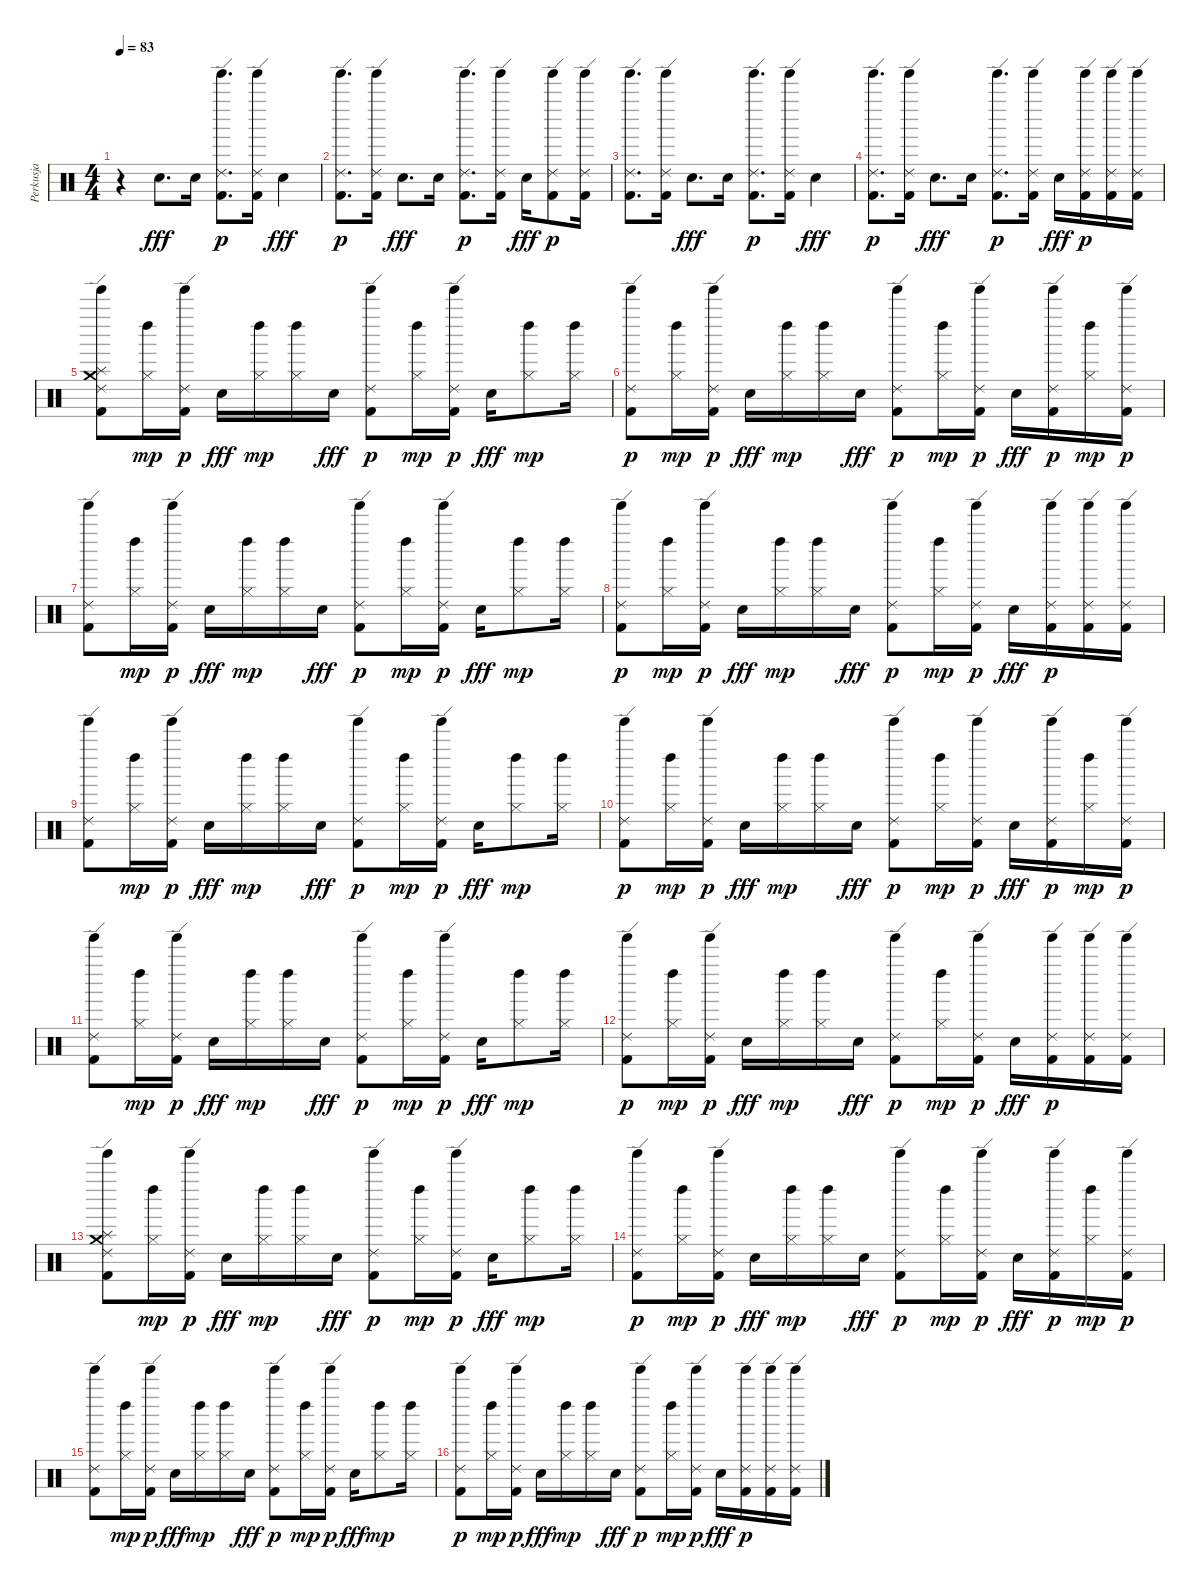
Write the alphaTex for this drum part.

\track ("Perkusja" "Perkusja") {instrument percussion}
\staff {score}
\articulation defaults
\ts (4 4)
\tempo 83
\clef neutral
\ks c
r.4{dy p} "Hand Clap (hit)".8{d dy fff} "Hand Clap (hit)".16 ("Tinkle Bell (hit)" "Ride (edge) 2" "Kick (hit) 2").8{d dy p} ("Tinkle Bell (hit)" "Ride (edge) 2" "Kick (hit) 2").16 "Hand Clap (hit)".4{dy fff} |
("Tinkle Bell (hit)" "Ride (edge) 2" "Kick (hit) 2").8{d dy p} ("Tinkle Bell (hit)" "Ride (edge) 2" "Kick (hit) 2").16 "Hand Clap (hit)".8{d dy fff} "Hand Clap (hit)".16 ("Tinkle Bell (hit)" "Ride (edge) 2" "Kick (hit) 2").8{d dy p} ("Tinkle Bell (hit)" "Ride (edge) 2" "Kick (hit) 2").16 "Hand Clap (hit)".16{dy fff} ("Tinkle Bell (hit)" "Ride (edge) 2" "Kick (hit) 2").8{dy p} ("Tinkle Bell (hit)" "Ride (edge) 2" "Kick (hit) 2").16 |
("Tinkle Bell (hit)" "Ride (edge) 2" "Kick (hit) 2").8{d} ("Tinkle Bell (hit)" "Ride (edge) 2" "Kick (hit) 2").16 "Hand Clap (hit)".8{d dy fff} "Hand Clap (hit)".16 ("Tinkle Bell (hit)" "Ride (edge) 2" "Kick (hit) 2").8{d dy p} ("Tinkle Bell (hit)" "Ride (edge) 2" "Kick (hit) 2").16 "Hand Clap (hit)".4{dy fff} |
("Tinkle Bell (hit)" "Ride (edge) 2" "Kick (hit) 2").8{d dy p} ("Tinkle Bell (hit)" "Ride (edge) 2" "Kick (hit) 2").16 "Hand Clap (hit)".8{d dy fff} "Hand Clap (hit)".16 ("Tinkle Bell (hit)" "Ride (edge) 2" "Kick (hit) 2").8{d dy p} ("Tinkle Bell (hit)" "Ride (edge) 2" "Kick (hit) 2").16 "Hand Clap (hit)".16{dy fff} ("Tinkle Bell (hit)" "Ride (edge) 2" "Kick (hit) 2").16{dy p} ("Tinkle Bell (hit)" "Ride (edge) 2" "Kick (hit) 2").16 ("Tinkle Bell (hit)" "Ride (edge) 2" "Kick (hit) 2").16 |
("Crash medium (hit)" "Splash (hit)" "Tinkle Bell (hit)" "Ride (edge) 2" "Kick (hit) 2").8 ("Hi-Hat (closed)" "Left Maraca (hit)").16{dy mp} ("Tinkle Bell (hit)" "Ride (edge) 2" "Kick (hit) 2").16{dy p} "Hand Clap (hit)".16{dy fff} ("Hi-Hat (closed)" "Left Maraca (hit)").16{dy mp} ("Hi-Hat (closed)" "Left Maraca (hit)").16 "Hand Clap (hit)".16{dy fff} ("Tinkle Bell (hit)" "Ride (edge) 2" "Kick (hit) 2").8{dy p} ("Hi-Hat (closed)" "Left Maraca (hit)").16{dy mp} ("Tinkle Bell (hit)" "Ride (edge) 2" "Kick (hit) 2").16{dy p} "Hand Clap (hit)".16{dy fff} ("Hi-Hat (closed)" "Left Maraca (hit)").8{dy mp} ("Hi-Hat (closed)" "Left Maraca (hit)").16 |
("Tinkle Bell (hit)" "Ride (edge) 2" "Kick (hit) 2").8{dy p} ("Hi-Hat (closed)" "Left Maraca (hit)").16{dy mp} ("Tinkle Bell (hit)" "Ride (edge) 2" "Kick (hit) 2").16{dy p} "Hand Clap (hit)".16{dy fff} ("Hi-Hat (closed)" "Left Maraca (hit)").16{dy mp} ("Hi-Hat (closed)" "Left Maraca (hit)").16 "Hand Clap (hit)".16{dy fff} ("Tinkle Bell (hit)" "Ride (edge) 2" "Kick (hit) 2").8{dy p} ("Hi-Hat (closed)" "Left Maraca (hit)").16{dy mp} ("Tinkle Bell (hit)" "Ride (edge) 2" "Kick (hit) 2").16{dy p} "Hand Clap (hit)".16{dy fff} ("Tinkle Bell (hit)" "Ride (edge) 2" "Kick (hit) 2").16{dy p} ("Hi-Hat (closed)" "Left Maraca (hit)").16{dy mp} ("Tinkle Bell (hit)" "Ride (edge) 2" "Kick (hit) 2").16{dy p} |
("Tinkle Bell (hit)" "Ride (edge) 2" "Kick (hit) 2").8 ("Hi-Hat (closed)" "Left Maraca (hit)").16{dy mp} ("Tinkle Bell (hit)" "Ride (edge) 2" "Kick (hit) 2").16{dy p} "Hand Clap (hit)".16{dy fff} ("Hi-Hat (closed)" "Left Maraca (hit)").16{dy mp} ("Hi-Hat (closed)" "Left Maraca (hit)").16 "Hand Clap (hit)".16{dy fff} ("Tinkle Bell (hit)" "Ride (edge) 2" "Kick (hit) 2").8{dy p} ("Hi-Hat (closed)" "Left Maraca (hit)").16{dy mp} ("Tinkle Bell (hit)" "Ride (edge) 2" "Kick (hit) 2").16{dy p} "Hand Clap (hit)".16{dy fff} ("Hi-Hat (closed)" "Left Maraca (hit)").8{dy mp} ("Hi-Hat (closed)" "Left Maraca (hit)").16 |
("Tinkle Bell (hit)" "Ride (edge) 2" "Kick (hit) 2").8{dy p} ("Hi-Hat (closed)" "Left Maraca (hit)").16{dy mp} ("Tinkle Bell (hit)" "Ride (edge) 2" "Kick (hit) 2").16{dy p} "Hand Clap (hit)".16{dy fff} ("Hi-Hat (closed)" "Left Maraca (hit)").16{dy mp} ("Hi-Hat (closed)" "Left Maraca (hit)").16 "Hand Clap (hit)".16{dy fff} ("Tinkle Bell (hit)" "Ride (edge) 2" "Kick (hit) 2").8{dy p} ("Hi-Hat (closed)" "Left Maraca (hit)").16{dy mp} ("Tinkle Bell (hit)" "Ride (edge) 2" "Kick (hit) 2").16{dy p} "Hand Clap (hit)".16{dy fff} ("Tinkle Bell (hit)" "Ride (edge) 2" "Kick (hit) 2").16{dy p} ("Tinkle Bell (hit)" "Ride (edge) 2" "Kick (hit) 2").16 ("Tinkle Bell (hit)" "Ride (edge) 2" "Kick (hit) 2").16 |
("Tinkle Bell (hit)" "Ride (edge) 2" "Kick (hit) 2").8 ("Hi-Hat (closed)" "Left Maraca (hit)").16{dy mp} ("Tinkle Bell (hit)" "Ride (edge) 2" "Kick (hit) 2").16{dy p} "Hand Clap (hit)".16{dy fff} ("Hi-Hat (closed)" "Left Maraca (hit)").16{dy mp} ("Hi-Hat (closed)" "Left Maraca (hit)").16 "Hand Clap (hit)".16{dy fff} ("Tinkle Bell (hit)" "Ride (edge) 2" "Kick (hit) 2").8{dy p} ("Hi-Hat (closed)" "Left Maraca (hit)").16{dy mp} ("Tinkle Bell (hit)" "Ride (edge) 2" "Kick (hit) 2").16{dy p} "Hand Clap (hit)".16{dy fff} ("Hi-Hat (closed)" "Left Maraca (hit)").8{dy mp} ("Hi-Hat (closed)" "Left Maraca (hit)").16 |
("Tinkle Bell (hit)" "Ride (edge) 2" "Kick (hit) 2").8{dy p} ("Hi-Hat (closed)" "Left Maraca (hit)").16{dy mp} ("Tinkle Bell (hit)" "Ride (edge) 2" "Kick (hit) 2").16{dy p} "Hand Clap (hit)".16{dy fff} ("Hi-Hat (closed)" "Left Maraca (hit)").16{dy mp} ("Hi-Hat (closed)" "Left Maraca (hit)").16 "Hand Clap (hit)".16{dy fff} ("Tinkle Bell (hit)" "Ride (edge) 2" "Kick (hit) 2").8{dy p} ("Hi-Hat (closed)" "Left Maraca (hit)").16{dy mp} ("Tinkle Bell (hit)" "Ride (edge) 2" "Kick (hit) 2").16{dy p} "Hand Clap (hit)".16{dy fff} ("Tinkle Bell (hit)" "Ride (edge) 2" "Kick (hit) 2").16{dy p} ("Hi-Hat (closed)" "Left Maraca (hit)").16{dy mp} ("Tinkle Bell (hit)" "Ride (edge) 2" "Kick (hit) 2").16{dy p} |
("Tinkle Bell (hit)" "Ride (edge) 2" "Kick (hit) 2").8 ("Hi-Hat (closed)" "Left Maraca (hit)").16{dy mp} ("Tinkle Bell (hit)" "Ride (edge) 2" "Kick (hit) 2").16{dy p} "Hand Clap (hit)".16{dy fff} ("Hi-Hat (closed)" "Left Maraca (hit)").16{dy mp} ("Hi-Hat (closed)" "Left Maraca (hit)").16 "Hand Clap (hit)".16{dy fff} ("Tinkle Bell (hit)" "Ride (edge) 2" "Kick (hit) 2").8{dy p} ("Hi-Hat (closed)" "Left Maraca (hit)").16{dy mp} ("Tinkle Bell (hit)" "Ride (edge) 2" "Kick (hit) 2").16{dy p} "Hand Clap (hit)".16{dy fff} ("Hi-Hat (closed)" "Left Maraca (hit)").8{dy mp} ("Hi-Hat (closed)" "Left Maraca (hit)").16 |
("Tinkle Bell (hit)" "Ride (edge) 2" "Kick (hit) 2").8{dy p} ("Hi-Hat (closed)" "Left Maraca (hit)").16{dy mp} ("Tinkle Bell (hit)" "Ride (edge) 2" "Kick (hit) 2").16{dy p} "Hand Clap (hit)".16{dy fff} ("Hi-Hat (closed)" "Left Maraca (hit)").16{dy mp} ("Hi-Hat (closed)" "Left Maraca (hit)").16 "Hand Clap (hit)".16{dy fff} ("Tinkle Bell (hit)" "Ride (edge) 2" "Kick (hit) 2").8{dy p} ("Hi-Hat (closed)" "Left Maraca (hit)").16{dy mp} ("Tinkle Bell (hit)" "Ride (edge) 2" "Kick (hit) 2").16{dy p} "Hand Clap (hit)".16{dy fff} ("Tinkle Bell (hit)" "Ride (edge) 2" "Kick (hit) 2").16{dy p} ("Tinkle Bell (hit)" "Ride (edge) 2" "Kick (hit) 2").16 ("Tinkle Bell (hit)" "Ride (edge) 2" "Kick (hit) 2").16 |
("Crash medium (hit)" "Splash (hit)" "Tinkle Bell (hit)" "Ride (edge) 2" "Kick (hit) 2").8 ("Hi-Hat (closed)" "Left Maraca (hit)").16{dy mp} ("Tinkle Bell (hit)" "Ride (edge) 2" "Kick (hit) 2").16{dy p} "Hand Clap (hit)".16{dy fff} ("Hi-Hat (closed)" "Left Maraca (hit)").16{dy mp} ("Hi-Hat (closed)" "Left Maraca (hit)").16 "Hand Clap (hit)".16{dy fff} ("Tinkle Bell (hit)" "Ride (edge) 2" "Kick (hit) 2").8{dy p} ("Hi-Hat (closed)" "Left Maraca (hit)").16{dy mp} ("Tinkle Bell (hit)" "Ride (edge) 2" "Kick (hit) 2").16{dy p} "Hand Clap (hit)".16{dy fff} ("Hi-Hat (closed)" "Left Maraca (hit)").8{dy mp} ("Hi-Hat (closed)" "Left Maraca (hit)").16 |
("Tinkle Bell (hit)" "Ride (edge) 2" "Kick (hit) 2").8{dy p} ("Hi-Hat (closed)" "Left Maraca (hit)").16{dy mp} ("Tinkle Bell (hit)" "Ride (edge) 2" "Kick (hit) 2").16{dy p} "Hand Clap (hit)".16{dy fff} ("Hi-Hat (closed)" "Left Maraca (hit)").16{dy mp} ("Hi-Hat (closed)" "Left Maraca (hit)").16 "Hand Clap (hit)".16{dy fff} ("Tinkle Bell (hit)" "Ride (edge) 2" "Kick (hit) 2").8{dy p} ("Hi-Hat (closed)" "Left Maraca (hit)").16{dy mp} ("Tinkle Bell (hit)" "Ride (edge) 2" "Kick (hit) 2").16{dy p} "Hand Clap (hit)".16{dy fff} ("Tinkle Bell (hit)" "Ride (edge) 2" "Kick (hit) 2").16{dy p} ("Hi-Hat (closed)" "Left Maraca (hit)").16{dy mp} ("Tinkle Bell (hit)" "Ride (edge) 2" "Kick (hit) 2").16{dy p} |
("Tinkle Bell (hit)" "Ride (edge) 2" "Kick (hit) 2").8 ("Hi-Hat (closed)" "Left Maraca (hit)").16{dy mp} ("Tinkle Bell (hit)" "Ride (edge) 2" "Kick (hit) 2").16{dy p} "Hand Clap (hit)".16{dy fff} ("Hi-Hat (closed)" "Left Maraca (hit)").16{dy mp} ("Hi-Hat (closed)" "Left Maraca (hit)").16 "Hand Clap (hit)".16{dy fff} ("Tinkle Bell (hit)" "Ride (edge) 2" "Kick (hit) 2").8{dy p} ("Hi-Hat (closed)" "Left Maraca (hit)").16{dy mp} ("Tinkle Bell (hit)" "Ride (edge) 2" "Kick (hit) 2").16{dy p} "Hand Clap (hit)".16{dy fff} ("Hi-Hat (closed)" "Left Maraca (hit)").8{dy mp} ("Hi-Hat (closed)" "Left Maraca (hit)").16 |
("Tinkle Bell (hit)" "Ride (edge) 2" "Kick (hit) 2").8{dy p} ("Hi-Hat (closed)" "Left Maraca (hit)").16{dy mp} ("Tinkle Bell (hit)" "Ride (edge) 2" "Kick (hit) 2").16{dy p} "Hand Clap (hit)".16{dy fff} ("Hi-Hat (closed)" "Left Maraca (hit)").16{dy mp} ("Hi-Hat (closed)" "Left Maraca (hit)").16 "Hand Clap (hit)".16{dy fff} ("Tinkle Bell (hit)" "Ride (edge) 2" "Kick (hit) 2").8{dy p} ("Hi-Hat (closed)" "Left Maraca (hit)").16{dy mp} ("Tinkle Bell (hit)" "Ride (edge) 2" "Kick (hit) 2").16{dy p} "Hand Clap (hit)".16{dy fff} ("Tinkle Bell (hit)" "Ride (edge) 2" "Kick (hit) 2").16{dy p} ("Tinkle Bell (hit)" "Ride (edge) 2" "Kick (hit) 2").16 ("Tinkle Bell (hit)" "Ride (edge) 2" "Kick (hit) 2").16
